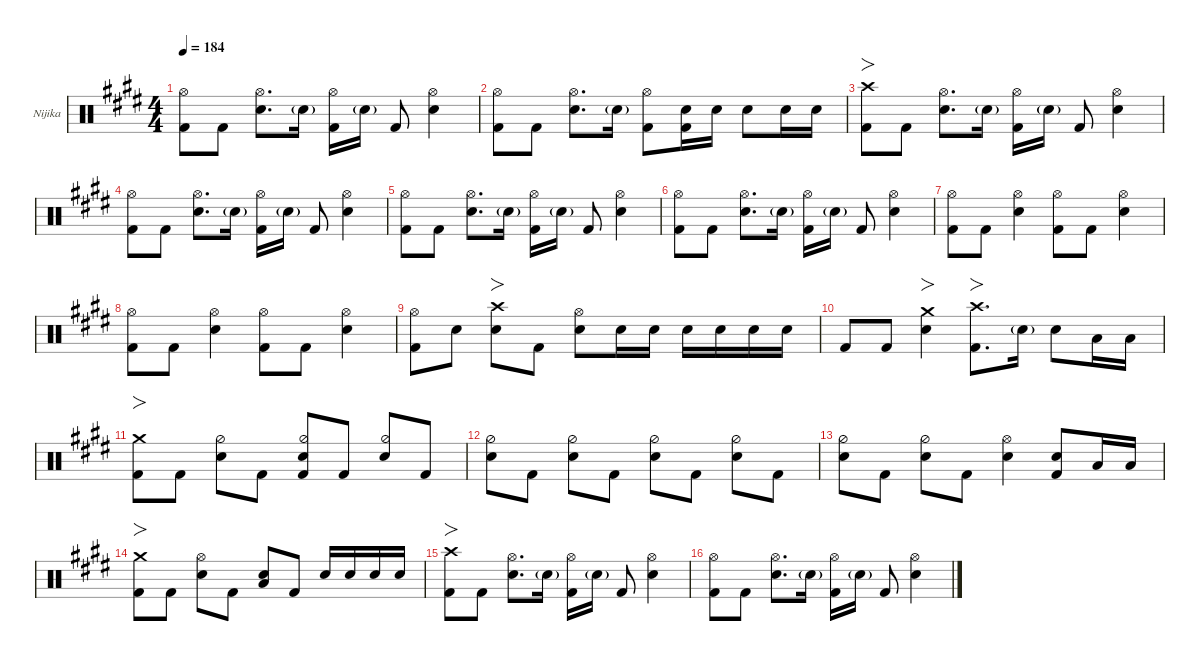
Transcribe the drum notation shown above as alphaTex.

\defaultSystemsLayout 4
\hideDynamics
\bracketExtendMode nobrackets
\firstSystemTrackNameOrientation horizontal
\track ("Nijika" "Nijika") {defaultSystemsLayout 4 instrument percussion}
\staff {score}
\articulation defaults
\ts (4 4)
\tempo 184
\clef neutral
\ks e
("Hi-Hat (open)"{acc forcenatural} "Kick (hit) 2"{acc forcenatural}).8{dy f beam Down} "Kick (hit) 2"{acc forcenatural}.8{beam Down} ("Hi-Hat (open)"{acc forcenatural} "Snare (hit) 2"{acc forcenatural}).8{d beam Down} "Snare (hit) 2"{g acc forcenatural}.16{dy mf beam Down} ("Hi-Hat (open)"{acc forcenatural} "Kick (hit) 2"{acc forcenatural}).16{dy f beam Down} "Snare (hit) 2"{g acc forcenatural}.16{dy mf beam Down beam split} "Kick (hit) 2"{acc forcenatural}.8{dy f beam Up} ("Hi-Hat (open)"{acc forcenatural} "Snare (hit) 2"{acc forcenatural}).4{beam Down} |
("Hi-Hat (open)"{acc forcenatural} "Kick (hit) 2"{acc forcenatural}).8{beam Down} "Kick (hit) 2"{acc forcenatural}.8{beam Down} ("Hi-Hat (open)"{acc forcenatural} "Snare (hit) 2"{acc forcenatural}).8{d beam Down} "Snare (hit) 2"{g acc forcenatural}.16{dy mf beam Down} ("Hi-Hat (open)"{acc forcenatural} "Kick (hit) 2"{acc forcenatural}).8{dy f beam Down} ("Snare (hit) 2"{acc forcenatural} "Kick (hit) 2"{acc forcenatural}).16{beam Down} "Snare (hit) 2"{acc forcenatural}.16{dy mf beam Down beam split} "Snare (hit) 2"{acc forcenatural}.8{beam Down} "Snare (hit) 2"{acc forcenatural}.16{dy f beam Down} "Snare (hit) 2"{acc forcenatural}.16{dy mf beam Down beam split} |
("Crash high (hit)"{acc forcenatural} "Kick (hit) 2"{acc forcenatural}).8{fo dy f beam Down} "Kick (hit) 2"{acc forcenatural}.8{beam Down} ("Hi-Hat (open)"{acc forcenatural} "Snare (hit) 2"{acc forcenatural}).8{d beam Down} "Snare (hit) 2"{g acc forcenatural}.16{dy mf beam Down} ("Hi-Hat (open)"{acc forcenatural} "Kick (hit) 2"{acc forcenatural}).16{dy f beam Down} "Snare (hit) 2"{g acc forcenatural}.16{dy mf beam Down beam split} "Kick (hit) 2"{acc forcenatural}.8{dy f beam Up} ("Hi-Hat (open)"{acc forcenatural} "Snare (hit) 2"{acc forcenatural}).4{beam Down} |
("Hi-Hat (open)"{acc forcenatural} "Kick (hit) 2"{acc forcenatural}).8{beam Down} "Kick (hit) 2"{acc forcenatural}.8{beam Down} ("Hi-Hat (open)"{acc forcenatural} "Snare (hit) 2"{acc forcenatural}).8{d beam Down} "Snare (hit) 2"{g acc forcenatural}.16{dy mf beam Down} ("Hi-Hat (open)"{acc forcenatural} "Kick (hit) 2"{acc forcenatural}).16{dy f beam Down} "Snare (hit) 2"{g acc forcenatural}.16{dy mf beam Down beam split} "Kick (hit) 2"{acc forcenatural}.8{dy f beam Up} ("Hi-Hat (open)"{acc forcenatural} "Snare (hit) 2"{acc forcenatural}).4{beam Down} |
("Hi-Hat (open)"{acc forcenatural} "Kick (hit) 2"{acc forcenatural}).8{beam Down} "Kick (hit) 2"{acc forcenatural}.8{beam Down} ("Hi-Hat (open)"{acc forcenatural} "Snare (hit) 2"{acc forcenatural}).8{d beam Down} "Snare (hit) 2"{g acc forcenatural}.16{dy mf beam Down} ("Hi-Hat (open)"{acc forcenatural} "Kick (hit) 2"{acc forcenatural}).16{dy f beam Down} "Snare (hit) 2"{g acc forcenatural}.16{dy mf beam Down beam split} "Kick (hit) 2"{acc forcenatural}.8{dy f beam Up} ("Hi-Hat (open)"{acc forcenatural} "Snare (hit) 2"{acc forcenatural}).4{beam Down} |
("Hi-Hat (open)"{acc forcenatural} "Kick (hit) 2"{acc forcenatural}).8{beam Down} "Kick (hit) 2"{acc forcenatural}.8{beam Down} ("Hi-Hat (open)"{acc forcenatural} "Snare (hit) 2"{acc forcenatural}).8{d beam Down} "Snare (hit) 2"{g acc forcenatural}.16{dy mf beam Down} ("Hi-Hat (open)"{acc forcenatural} "Kick (hit) 2"{acc forcenatural}).16{dy f beam Down} "Snare (hit) 2"{g acc forcenatural}.16{dy mf beam Down beam split} "Kick (hit) 2"{acc forcenatural}.8{dy f beam Up} ("Hi-Hat (open)"{acc forcenatural} "Snare (hit) 2"{acc forcenatural}).4{beam Down} |
("Hi-Hat (open)"{acc forcenatural} "Kick (hit) 2"{acc forcenatural}).8{beam Down} "Kick (hit) 2"{acc forcenatural}.8{beam Down} ("Hi-Hat (open)"{acc forcenatural} "Snare (hit) 2"{acc forcenatural}).4{beam Down} ("Hi-Hat (open)"{acc forcenatural} "Kick (hit) 2"{acc forcenatural}).8{beam Down} "Kick (hit) 2"{acc forcenatural}.8{beam Down} ("Hi-Hat (open)"{acc forcenatural} "Snare (hit) 2"{acc forcenatural}).4{beam Down} |
("Hi-Hat (open)"{acc forcenatural} "Kick (hit) 2"{acc forcenatural}).8{beam Down} "Kick (hit) 2"{acc forcenatural}.8{beam Down} ("Hi-Hat (open)"{acc forcenatural} "Snare (hit) 2"{acc forcenatural}).4{beam Down} ("Hi-Hat (open)"{acc forcenatural} "Kick (hit) 2"{acc forcenatural}).8{beam Down} "Kick (hit) 2"{acc forcenatural}.8{beam Down} ("Hi-Hat (open)"{acc forcenatural} "Snare (hit) 2"{acc forcenatural}).4{beam Down} |
("Hi-Hat (open)"{acc forcenatural} "Kick (hit) 2"{acc forcenatural}).8{beam Down} "Snare (hit) 2"{acc forcenatural}.8{beam Down} ("Snare (hit) 2"{acc forcenatural} "Crash high (hit)"{acc forcenatural}).8{fo beam Down} "Kick (hit) 2"{acc forcenatural}.8{beam Down} ("Snare (hit) 2"{acc forcenatural} "Hi-Hat (open)"{acc forcenatural}).8{beam Down} "Snare (hit) 2"{acc forcenatural}.16{beam Down} "Snare (hit) 2"{acc forcenatural}.16{dy mf beam Down beam split} "Snare (hit) 2"{acc forcenatural}.16{dy f beam Down} "Snare (hit) 2"{acc forcenatural}.16{dy mf beam Down} "Snare (hit) 2"{acc forcenatural}.16{dy f beam Down} "Snare (hit) 2"{acc forcenatural}.16{dy mf beam Down} |
"Kick (hit) 2"{acc forcenatural}.8{dy f beam Up} "Kick (hit) 2"{acc forcenatural}.8{beam Up} ("Snare (hit) 2"{acc forcenatural} "Crash medium (hit)"{acc forcenatural}).4{fo beam Down} ("Crash high (hit)"{acc forcenatural} "Kick (hit) 2"{acc forcenatural}).8{fo d beam Down} "Snare (hit) 2"{g acc forcenatural}.16{dy mf beam Down beam split} "Snare (hit) 2"{acc forcenatural}.8{dy f beam Down} "Low Tom (hit)"{acc forcenatural}.16{beam Down} "Low Tom (hit)"{acc forcenatural}.16{beam Down} |
("Crash medium (hit)"{acc forcenatural} "Kick (hit) 2"{acc forcenatural}).8{fo beam Down} "Kick (hit) 2"{acc forcenatural}.8{beam Down} ("Snare (hit) 2"{acc forcenatural} "Hi-Hat (half)"{acc forcenatural}).8{beam Down} "Kick (hit) 2"{acc forcenatural}.8{beam Down} ("Snare (hit) 2"{acc forcenatural} "Hi-Hat (half)"{acc forcenatural} "Kick (hit) 2"{acc forcenatural}).8{beam Up} "Kick (hit) 2"{acc forcenatural}.8{beam Up} ("Snare (hit) 2"{acc forcenatural} "Hi-Hat (half)"{acc forcenatural}).8{beam Up} "Kick (hit) 2"{acc forcenatural}.8{beam Up} |
("Snare (hit) 2"{acc forcenatural} "Hi-Hat (half)"{acc forcenatural}).8{beam Down} "Kick (hit) 2"{acc forcenatural}.8{beam Down} ("Snare (hit) 2"{acc forcenatural} "Hi-Hat (half)"{acc forcenatural}).8{beam Down} "Kick (hit) 2"{acc forcenatural}.8{beam Down} ("Snare (hit) 2"{acc forcenatural} "Hi-Hat (half)"{acc forcenatural}).8{beam Down} "Kick (hit) 2"{acc forcenatural}.8{beam Down} ("Snare (hit) 2"{acc forcenatural} "Hi-Hat (half)"{acc forcenatural}).8{beam Down} "Kick (hit) 2"{acc forcenatural}.8{beam Down} |
("Snare (hit) 2"{acc forcenatural} "Hi-Hat (half)"{acc forcenatural}).8{beam Down} "Kick (hit) 2"{acc forcenatural}.8{beam Down} ("Snare (hit) 2"{acc forcenatural} "Hi-Hat (half)"{acc forcenatural}).8{beam Down} "Kick (hit) 2"{acc forcenatural}.8{beam Down} ("Snare (hit) 2"{acc forcenatural} "Hi-Hat (open)"{acc forcenatural}).4{beam Down} ("Snare (hit) 2"{acc forcenatural} "Kick (hit) 2"{acc forcenatural}).8{beam Up} "Low Tom (hit)"{acc forcenatural}.16{beam Up} "Low Tom (hit)"{acc forcenatural}.16{beam Up} |
("Crash medium (hit)"{acc forcenatural} "Kick (hit) 2"{acc forcenatural}).8{fo beam Down} "Kick (hit) 2"{acc forcenatural}.8{beam Down} ("Snare (hit) 2"{acc forcenatural} "Hi-Hat (open)"{acc forcenatural}).8{beam Down} "Kick (hit) 2"{acc forcenatural}.8{beam Down} ("Snare (hit) 2"{acc forcenatural} "Low Tom (hit)"{acc forcenatural}).8{beam Up} "Kick (hit) 2"{acc forcenatural}.8{beam Up} "Snare (hit) 2"{acc forcenatural}.16{beam Up} "Snare (hit) 2"{acc forcenatural}.16{dy mf beam Up} "Snare (hit) 2"{acc forcenatural}.16{dy f beam Up} "Snare (hit) 2"{acc forcenatural}.16{dy mf beam Up} |
("Crash high (hit)"{acc forcenatural} "Kick (hit) 2"{acc forcenatural}).8{fo dy f beam Down} "Kick (hit) 2"{acc forcenatural}.8{beam Down} ("Hi-Hat (open)"{acc forcenatural} "Snare (hit) 2"{acc forcenatural}).8{d beam Down} "Snare (hit) 2"{g acc forcenatural}.16{dy mf beam Down} ("Hi-Hat (open)"{acc forcenatural} "Kick (hit) 2"{acc forcenatural}).16{dy f beam Down} "Snare (hit) 2"{g acc forcenatural}.16{dy mf beam Down beam split} "Kick (hit) 2"{acc forcenatural}.8{dy f beam Up} ("Hi-Hat (open)"{acc forcenatural} "Snare (hit) 2"{acc forcenatural}).4{beam Down} |
("Hi-Hat (open)"{acc forcenatural} "Kick (hit) 2"{acc forcenatural}).8{beam Down} "Kick (hit) 2"{acc forcenatural}.8{beam Down} ("Hi-Hat (open)"{acc forcenatural} "Snare (hit) 2"{acc forcenatural}).8{d beam Down} "Snare (hit) 2"{g acc forcenatural}.16{dy mf beam Down} ("Hi-Hat (open)"{acc forcenatural} "Kick (hit) 2"{acc forcenatural}).16{dy f beam Down} "Snare (hit) 2"{g acc forcenatural}.16{dy mf beam Down beam split} "Kick (hit) 2"{acc forcenatural}.8{dy f beam Up} ("Hi-Hat (open)"{acc forcenatural} "Snare (hit) 2"{acc forcenatural}).4{beam Down}
